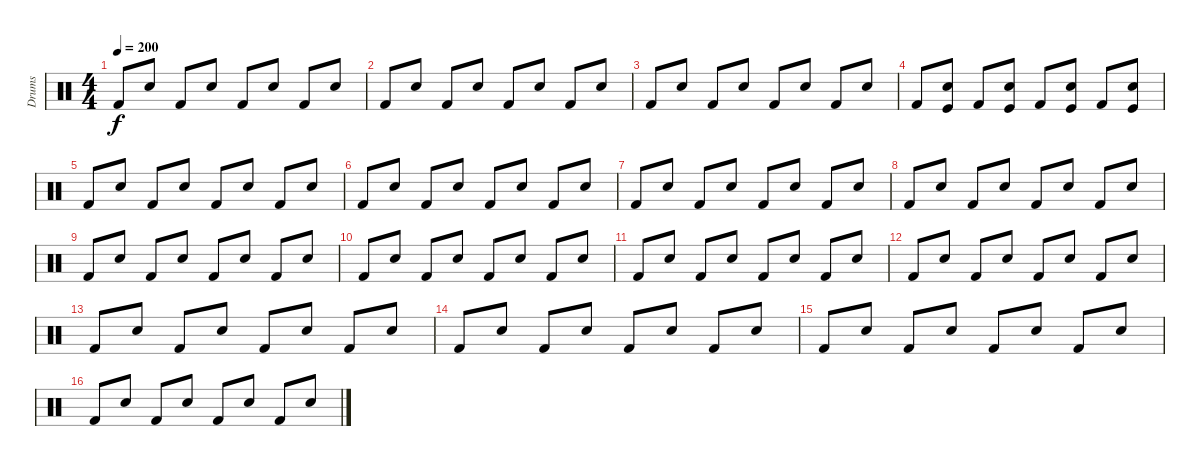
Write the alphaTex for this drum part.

\track ("Drums" "Drums") {instrument percussion}
\staff {score}
\articulation defaults
\ts (4 4)
\tempo 200
\clef neutral
\ks c "Kick (hit) 2".8{dy f} "Snare (hit) 2".8 "Kick (hit) 2".8 "Snare (hit) 2".8 "Kick (hit) 2".8 "Snare (hit) 2".8 "Kick (hit) 2".8 "Snare (hit) 2".8
|
"Kick (hit) 2".8 "Snare (hit) 2".8 "Kick (hit) 2".8 "Snare (hit) 2".8 "Kick (hit) 2".8 "Snare (hit) 2".8 "Kick (hit) 2".8 "Snare (hit) 2".8 |
"Kick (hit) 2".8 "Snare (hit) 2".8 "Kick (hit) 2".8 "Snare (hit) 2".8 "Kick (hit) 2".8 "Snare (hit) 2".8 "Kick (hit) 2".8 "Snare (hit) 2".8 |
"Kick (hit) 2".8 ("Snare (hit) 2" "Kick (hit)").8 "Kick (hit) 2".8 ("Snare (hit) 2" "Kick (hit)").8 "Kick (hit) 2".8 ("Snare (hit) 2" "Kick (hit)").8 "Kick (hit) 2".8 ("Snare (hit) 2" "Kick (hit)").8 |
"Kick (hit) 2".8 "Snare (hit) 2".8 "Kick (hit) 2".8 "Snare (hit) 2".8 "Kick (hit) 2".8 "Snare (hit) 2".8 "Kick (hit) 2".8 "Snare (hit) 2".8 |
"Kick (hit) 2".8 "Snare (hit) 2".8 "Kick (hit) 2".8 "Snare (hit) 2".8 "Kick (hit) 2".8 "Snare (hit) 2".8 "Kick (hit) 2".8 "Snare (hit) 2".8 |
"Kick (hit) 2".8 "Snare (hit) 2".8 "Kick (hit) 2".8 "Snare (hit) 2".8 "Kick (hit) 2".8 "Snare (hit) 2".8 "Kick (hit) 2".8 "Snare (hit) 2".8 |
"Kick (hit) 2".8 "Snare (hit) 2".8 "Kick (hit) 2".8 "Snare (hit) 2".8 "Kick (hit) 2".8 "Snare (hit) 2".8 "Kick (hit) 2".8 "Snare (hit) 2".8 |
"Kick (hit) 2".8 "Snare (hit) 2".8 "Kick (hit) 2".8 "Snare (hit) 2".8 "Kick (hit) 2".8 "Snare (hit) 2".8 "Kick (hit) 2".8 "Snare (hit) 2".8 |
"Kick (hit) 2".8 "Snare (hit) 2".8 "Kick (hit) 2".8 "Snare (hit) 2".8 "Kick (hit) 2".8 "Snare (hit) 2".8 "Kick (hit) 2".8 "Snare (hit) 2".8 |
"Kick (hit) 2".8 "Snare (hit) 2".8 "Kick (hit) 2".8 "Snare (hit) 2".8 "Kick (hit) 2".8 "Snare (hit) 2".8 "Kick (hit) 2".8 "Snare (hit) 2".8 |
"Kick (hit) 2".8 "Snare (hit) 2".8 "Kick (hit) 2".8 "Snare (hit) 2".8 "Kick (hit) 2".8 "Snare (hit) 2".8 "Kick (hit) 2".8 "Snare (hit) 2".8 |
"Kick (hit) 2".8 "Snare (hit) 2".8 "Kick (hit) 2".8 "Snare (hit) 2".8 "Kick (hit) 2".8 "Snare (hit) 2".8 "Kick (hit) 2".8 "Snare (hit) 2".8 |
"Kick (hit) 2".8 "Snare (hit) 2".8 "Kick (hit) 2".8 "Snare (hit) 2".8 "Kick (hit) 2".8 "Snare (hit) 2".8 "Kick (hit) 2".8 "Snare (hit) 2".8 |
"Kick (hit) 2".8 "Snare (hit) 2".8 "Kick (hit) 2".8 "Snare (hit) 2".8 "Kick (hit) 2".8 "Snare (hit) 2".8 "Kick (hit) 2".8 "Snare (hit) 2".8 |
"Kick (hit) 2".8 "Snare (hit) 2".8 "Kick (hit) 2".8 "Snare (hit) 2".8 "Kick (hit) 2".8 "Snare (hit) 2".8 "Kick (hit) 2".8 "Snare (hit) 2".8
